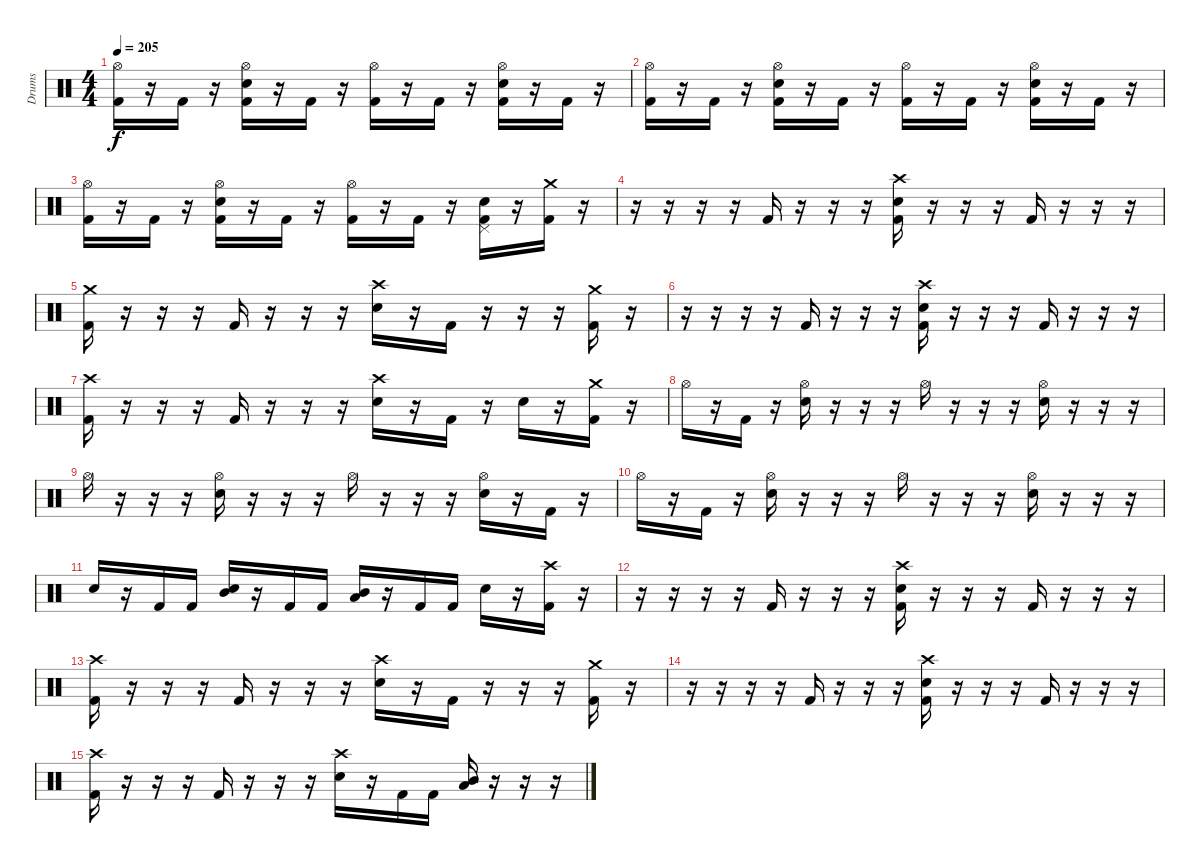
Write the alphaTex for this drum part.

\track ("Drums" "Drums") {instrument percussion}
\staff {score}
\articulation defaults
\ts (4 4)
\tempo 205
\clef neutral
\ks c
("Hi-Hat (open)" "Kick (hit) 2").16{dy f} r.16 "Kick (hit) 2".16 r.16 ("Hi-Hat (open)" "Electric Snare (hit)" "Kick (hit) 2").16 r.16 "Kick (hit) 2".16 r.16 ("Hi-Hat (open)" "Kick (hit) 2").16 r.16 "Kick (hit) 2".16 r.16 ("Hi-Hat (open)" "Electric Snare (hit)" "Kick (hit) 2").16 r.16 "Kick (hit) 2".16 r.16 |
("Hi-Hat (open)" "Kick (hit) 2").16 r.16 "Kick (hit) 2".16 r.16 ("Hi-Hat (open)" "Electric Snare (hit)" "Kick (hit) 2").16 r.16 "Kick (hit) 2".16 r.16 ("Hi-Hat (open)" "Kick (hit) 2").16 r.16 "Kick (hit) 2".16 r.16 ("Hi-Hat (open)" "Electric Snare (hit)" "Kick (hit) 2").16 r.16 "Kick (hit) 2".16 r.16 |
("Hi-Hat (open)" "Kick (hit) 2").16 r.16 "Kick (hit) 2".16 r.16 ("Hi-Hat (open)" "Electric Snare (hit)" "Kick (hit) 2").16 r.16 "Kick (hit) 2".16 r.16 ("Hi-Hat (open)" "Kick (hit) 2").16 r.16 "Kick (hit) 2".16 r.16 ("Pedal Hi-Hat (hit)" "Electric Snare (hit)" "Kick (hit) 2").16 r.16 ("Crash medium (hit)" "Kick (hit) 2").16 r.16 |
r.16 r.16 r.16 r.16 "Kick (hit) 2".16 r.16 r.16 r.16 ("Crash high (hit)" "Electric Snare (hit)" "Kick (hit) 2").16 r.16 r.16 r.16 "Kick (hit) 2".16 r.16 r.16 r.16 |
("Crash medium (hit)" "Kick (hit) 2").16 r.16 r.16 r.16 "Kick (hit) 2".16 r.16 r.16 r.16 ("Crash high (hit)" "Electric Snare (hit)").16 r.16 "Kick (hit) 2".16 r.16 r.16 r.16 ("Crash medium (hit)" "Kick (hit) 2").16 r.16 |
r.16 r.16 r.16 r.16 "Kick (hit) 2".16 r.16 r.16 r.16 ("Crash high (hit)" "Electric Snare (hit)" "Kick (hit) 2").16 r.16 r.16 r.16 "Kick (hit) 2".16 r.16 r.16 r.16 |
("Crash high (hit)" "Kick (hit) 2").16 r.16 r.16 r.16 "Kick (hit) 2".16 r.16 r.16 r.16 ("Crash high (hit)" "Electric Snare (hit)").16 r.16 "Kick (hit) 2".16 r.16 "Electric Snare (hit)".16 r.16 ("Crash medium (hit)" "Kick (hit) 2").16 r.16 |
"Hi-Hat (open)".16 r.16 "Kick (hit) 2".16 r.16 ("Hi-Hat (open)" "Electric Snare (hit)").16 r.16 r.16 r.16 "Hi-Hat (open)".16 r.16 r.16 r.16 ("Hi-Hat (open)" "Electric Snare (hit)").16 r.16 r.16 r.16 |
"Hi-Hat (open)".16 r.16 r.16 r.16 ("Hi-Hat (open)" "Electric Snare (hit)").16 r.16 r.16 r.16 "Hi-Hat (open)".16 r.16 r.16 r.16 ("Hi-Hat (open)" "Electric Snare (hit)").16 r.16 "Kick (hit) 2".16 r.16 |
"Hi-Hat (open)".16 r.16 "Kick (hit) 2".16 r.16 ("Hi-Hat (open)" "Electric Snare (hit)").16 r.16 r.16 r.16 "Hi-Hat (open)".16 r.16 r.16 r.16 ("Hi-Hat (open)" "Electric Snare (hit)").16 r.16 r.16 r.16 |
"Electric Snare (hit)".16 r.16 "Kick (hit) 2".16 "Kick (hit) 2".16 ("Mid Tom (hit)" "Electric Snare (hit)").16 r.16 "Kick (hit) 2".16 "Kick (hit) 2".16 ("Mid Tom (hit)" "Low Tom (hit)").16 r.16 "Kick (hit) 2".16 "Kick (hit) 2".16 "Electric Snare (hit)".16 r.16 ("Crash high (hit)" "Kick (hit) 2").16 r.16 |
r.16 r.16 r.16 r.16 "Kick (hit) 2".16 r.16 r.16 r.16 ("Crash high (hit)" "Electric Snare (hit)" "Kick (hit) 2").16 r.16 r.16 r.16 "Kick (hit) 2".16 r.16 r.16 r.16 |
("Crash high (hit)" "Kick (hit) 2").16 r.16 r.16 r.16 "Kick (hit) 2".16 r.16 r.16 r.16 ("Crash high (hit)" "Electric Snare (hit)").16 r.16 "Kick (hit) 2".16 r.16 r.16 r.16 ("Crash medium (hit)" "Kick (hit) 2").16 r.16 |
r.16 r.16 r.16 r.16 "Kick (hit) 2".16 r.16 r.16 r.16 ("Crash high (hit)" "Electric Snare (hit)" "Kick (hit) 2").16 r.16 r.16 r.16 "Kick (hit) 2".16 r.16 r.16 r.16 |
("Crash high (hit)" "Kick (hit) 2").16 r.16 r.16 r.16 "Kick (hit) 2".16 r.16 r.16 r.16 ("Crash high (hit)" "Electric Snare (hit)").16 r.16 "Kick (hit) 2".16 "Kick (hit) 2".16 ("Mid Tom (hit)" "Low Tom (hit)").16 r.16 r.16 r.16
